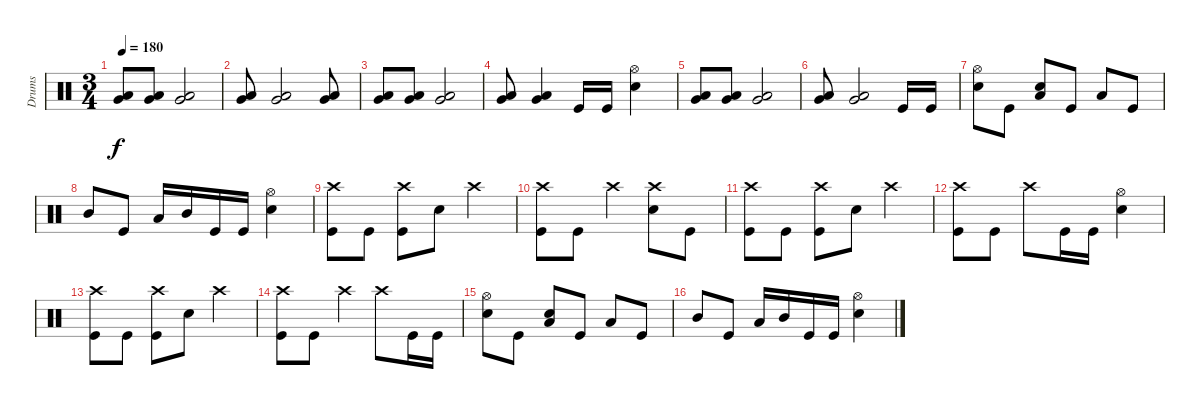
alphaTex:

\track ("Drums" "Drums") {instrument percussion}
\staff {score}
\articulation defaults
\ts (3 4)
\tempo 180
\clef neutral
\ks c
("Very Low Tom (hit)" "Low Floor Tom (hit)").8{dy f} ("Very Low Tom (hit)" "Low Floor Tom (hit)").8 ("Very Low Tom (hit)" "Low Floor Tom (hit)").2 |
("Very Low Tom (hit)" "Low Floor Tom (hit)").8 ("Very Low Tom (hit)" "Low Floor Tom (hit)").2 ("Very Low Tom (hit)" "Low Floor Tom (hit)").8 |
("Very Low Tom (hit)" "Low Floor Tom (hit)").8 ("Very Low Tom (hit)" "Low Floor Tom (hit)").8 ("Very Low Tom (hit)" "Low Floor Tom (hit)").2 |
("Very Low Tom (hit)" "Low Floor Tom (hit)").8 ("Very Low Tom (hit)" "Low Floor Tom (hit)").4 "Kick (hit)".16 "Kick (hit)".16 ("Hi-Hat (open)" "Electric Snare (hit)").4 |
("Very Low Tom (hit)" "Low Floor Tom (hit)").8 ("Very Low Tom (hit)" "Low Floor Tom (hit)").8 ("Very Low Tom (hit)" "Low Floor Tom (hit)").2 |
("Very Low Tom (hit)" "Low Floor Tom (hit)").8 ("Very Low Tom (hit)" "Low Floor Tom (hit)").2 "Kick (hit)".16 "Kick (hit)".16 |
("Hi-Hat (open)" "Electric Snare (hit)").8 "Kick (hit)".8 ("Electric Snare (hit)" "Low Tom (hit)").8 "Kick (hit)".8 "Low Tom (hit)".8 "Kick (hit)".8 |
"Mid Tom (hit)".8 "Kick (hit)".8 "Low Tom (hit)".16 "Mid Tom (hit)".16 "Kick (hit)".16 "Kick (hit)".16 ("Hi-Hat (open)" "Electric Snare (hit)").4 |
("Crash high (hit)" "Kick (hit)").8 "Kick (hit)".8 ("Crash high (hit)" "Kick (hit)").8 "Electric Snare (hit)".8 "Crash high (hit)".4 |
("Crash high (hit)" "Kick (hit)").8 "Kick (hit)".8 "Crash high (hit)".4 ("Crash high (hit)" "Electric Snare (hit)").8 "Kick (hit)".8 |
("Crash high (hit)" "Kick (hit)").8 "Kick (hit)".8 ("Crash high (hit)" "Kick (hit)").8 "Electric Snare (hit)".8 "Crash high (hit)".4 |
("Crash high (hit)" "Kick (hit)").8 "Kick (hit)".8 "Crash high (hit)".8 "Kick (hit)".16 "Kick (hit)".16 ("Hi-Hat (open)" "Electric Snare (hit)").4 |
("Crash high (hit)" "Kick (hit)").8 "Kick (hit)".8 ("Crash high (hit)" "Kick (hit)").8 "Electric Snare (hit)".8 "Crash high (hit)".4 |
("Crash high (hit)" "Kick (hit)").8 "Kick (hit)".8 "Crash high (hit)".4 "Crash high (hit)".8 "Kick (hit)".16 "Kick (hit)".16 |
("Hi-Hat (open)" "Electric Snare (hit)").8 "Kick (hit)".8 ("Electric Snare (hit)" "Low Tom (hit)").8 "Kick (hit)".8 "Low Tom (hit)".8 "Kick (hit)".8 |
"Mid Tom (hit)".8 "Kick (hit)".8 "Low Tom (hit)".16 "Mid Tom (hit)".16 "Kick (hit)".16 "Kick (hit)".16 ("Hi-Hat (open)" "Electric Snare (hit)").4
